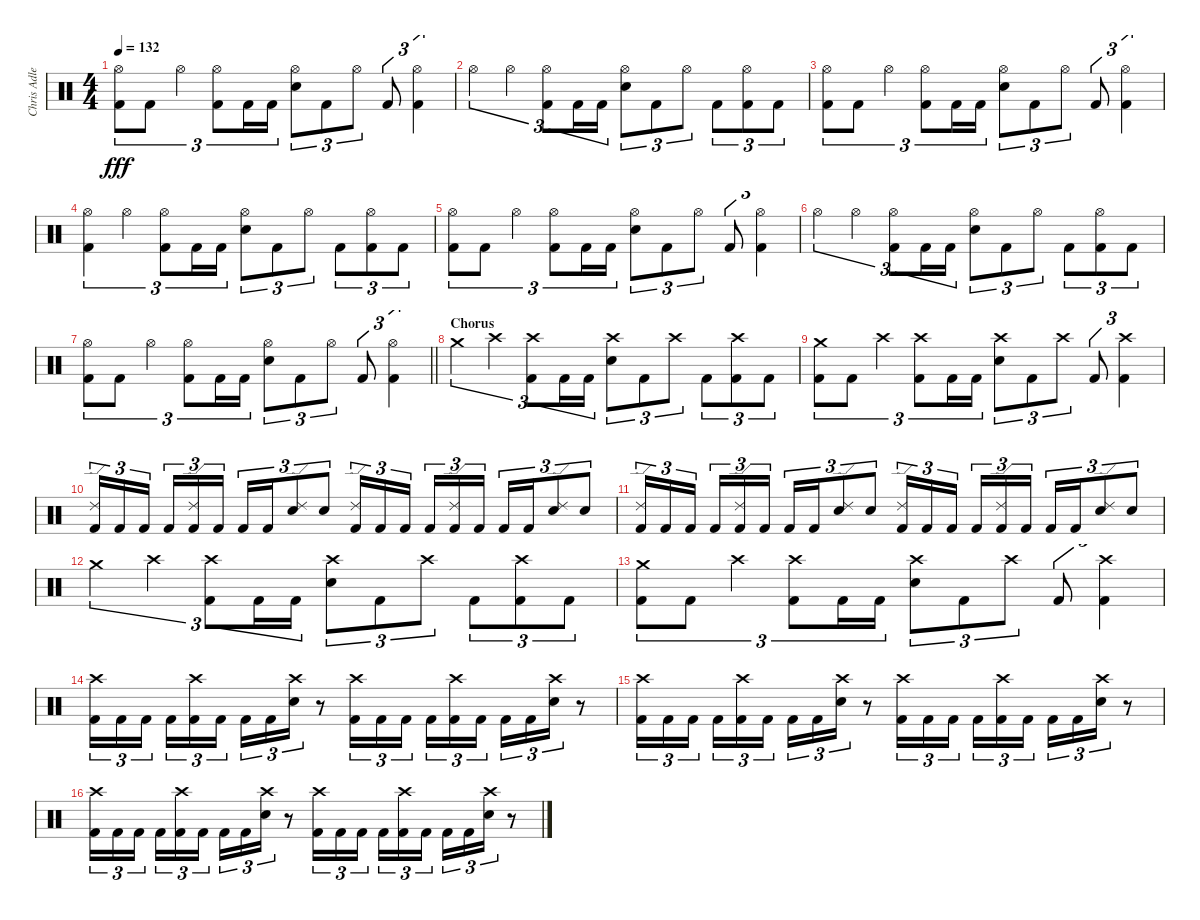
\track ("Chris Adler" "Chris Adle") {instrument percussion}
\staff {score}
\articulation defaults
\ts (4 4)
\tempo 132
\clef neutral
\ks c
("Hi-Hat (open)" "Kick (hit) 2").8{tu (3 2) dy fff} "Kick (hit) 2".8{tu (3 2)} "Hi-Hat (open)".4{tu (3 2)} ("Hi-Hat (open)" "Kick (hit) 2").8{tu (3 2)} "Kick (hit) 2".16{tu (3 2)} "Kick (hit) 2".16{tu (3 2)} ("Hi-Hat (open)" "Electric Snare (hit)").8{tu (3 2)} "Kick (hit) 2".8{tu (3 2)} "Hi-Hat (open)".8{tu (3 2)} "Kick (hit) 2".8{tu (3 2)} ("Hi-Hat (open)" "Kick (hit) 2").4{tu (3 2)} |
"Hi-Hat (open)".4{tu (3 2)} "Hi-Hat (open)".4{tu (3 2)} ("Hi-Hat (open)" "Kick (hit) 2").8{tu (3 2)} "Kick (hit) 2".16{tu (3 2)} "Kick (hit) 2".16{tu (3 2)} ("Hi-Hat (open)" "Electric Snare (hit)").8{tu (3 2)} "Kick (hit) 2".8{tu (3 2)} "Hi-Hat (open)".8{tu (3 2)} "Kick (hit) 2".8{tu (3 2)} ("Hi-Hat (open)" "Kick (hit) 2").8{tu (3 2)} "Kick (hit) 2".8{tu (3 2)} |
("Hi-Hat (open)" "Kick (hit) 2").8{tu (3 2)} "Kick (hit) 2".8{tu (3 2)} "Hi-Hat (open)".4{tu (3 2)} ("Hi-Hat (open)" "Kick (hit) 2").8{tu (3 2)} "Kick (hit) 2".16{tu (3 2)} "Kick (hit) 2".16{tu (3 2)} ("Hi-Hat (open)" "Electric Snare (hit)").8{tu (3 2)} "Kick (hit) 2".8{tu (3 2)} "Hi-Hat (open)".8{tu (3 2)} "Kick (hit) 2".8{tu (3 2)} ("Hi-Hat (open)" "Kick (hit) 2").4{tu (3 2)} |
("Hi-Hat (open)" "Kick (hit) 2").4{tu (3 2)} "Hi-Hat (open)".4{tu (3 2)} ("Hi-Hat (open)" "Kick (hit) 2").8{tu (3 2)} "Kick (hit) 2".16{tu (3 2)} "Kick (hit) 2".16{tu (3 2)} ("Hi-Hat (open)" "Electric Snare (hit)").8{tu (3 2)} "Kick (hit) 2".8{tu (3 2)} "Hi-Hat (open)".8{tu (3 2)} "Kick (hit) 2".8{tu (3 2)} ("Hi-Hat (open)" "Kick (hit) 2").8{tu (3 2)} "Kick (hit) 2".8{tu (3 2)} |
("Hi-Hat (open)" "Kick (hit) 2").8{tu (3 2)} "Kick (hit) 2".8{tu (3 2)} "Hi-Hat (open)".4{tu (3 2)} ("Hi-Hat (open)" "Kick (hit) 2").8{tu (3 2)} "Kick (hit) 2".16{tu (3 2)} "Kick (hit) 2".16{tu (3 2)} ("Hi-Hat (open)" "Electric Snare (hit)").8{tu (3 2)} "Kick (hit) 2".8{tu (3 2)} "Hi-Hat (open)".8{tu (3 2)} "Kick (hit) 2".8{tu (3 2)} ("Hi-Hat (open)" "Kick (hit) 2").4{tu (3 2)} |
"Hi-Hat (open)".4{tu (3 2)} "Hi-Hat (open)".4{tu (3 2)} ("Hi-Hat (open)" "Kick (hit) 2").8{tu (3 2)} "Kick (hit) 2".16{tu (3 2)} "Kick (hit) 2".16{tu (3 2)} ("Hi-Hat (open)" "Electric Snare (hit)").8{tu (3 2)} "Kick (hit) 2".8{tu (3 2)} "Hi-Hat (open)".8{tu (3 2)} "Kick (hit) 2".8{tu (3 2)} ("Hi-Hat (open)" "Kick (hit) 2").8{tu (3 2)} "Kick (hit) 2".8{tu (3 2)} |
\barLineRight lightlight
("Hi-Hat (open)" "Kick (hit) 2").8{tu (3 2)} "Kick (hit) 2".8{tu (3 2)} "Hi-Hat (open)".4{tu (3 2)} ("Hi-Hat (open)" "Kick (hit) 2").8{tu (3 2)} "Kick (hit) 2".16{tu (3 2)} "Kick (hit) 2".16{tu (3 2)} ("Hi-Hat (open)" "Electric Snare (hit)").8{tu (3 2)} "Kick (hit) 2".8{tu (3 2)} "Hi-Hat (open)".8{tu (3 2)} "Kick (hit) 2".8{tu (3 2)} ("Hi-Hat (open)" "Kick (hit) 2").4{tu (3 2)} |
\section ("" "Chorus")
"Crash medium (hit)".4{tu (3 2)} "Crash high (hit)".4{tu (3 2)} ("Crash high (hit)" "Kick (hit) 2").8{tu (3 2)} "Kick (hit) 2".16{tu (3 2)} "Kick (hit) 2".16{tu (3 2)} ("Crash high (hit)" "Electric Snare (hit)").8{tu (3 2)} "Kick (hit) 2".8{tu (3 2)} "Crash high (hit)".8{tu (3 2)} "Kick (hit) 2".8{tu (3 2)} ("Crash high (hit)" "Kick (hit) 2").8{tu (3 2)} "Kick (hit) 2".8{tu (3 2)} |
("Crash medium (hit)" "Kick (hit) 2").8{tu (3 2)} "Kick (hit) 2".8{tu (3 2)} "Crash high (hit)".4{tu (3 2)} ("Crash high (hit)" "Kick (hit) 2").8{tu (3 2)} "Kick (hit) 2".16{tu (3 2)} "Kick (hit) 2".16{tu (3 2)} ("Crash high (hit)" "Electric Snare (hit)").8{tu (3 2)} "Kick (hit) 2".8{tu (3 2)} "Crash high (hit)".8{tu (3 2)} "Kick (hit) 2".8{tu (3 2)} ("Crash high (hit)" "Kick (hit) 2").4{tu (3 2)} |
("Ride (edge) 2" "Kick (hit) 2").16{tu (3 2)} "Kick (hit) 2".16{tu (3 2)} "Kick (hit) 2".16{tu (3 2) beam splitsecondary} "Kick (hit) 2".16{tu (3 2)} ("Ride (edge) 2" "Kick (hit) 2").16{tu (3 2)} "Kick (hit) 2".16{tu (3 2)} "Kick (hit) 2".16{tu (3 2)} "Kick (hit) 2".16{tu (3 2)} ("Ride (edge) 2" "Electric Snare (hit)").8{tu (3 2)} "Electric Snare (hit)".8{tu (3 2)} ("Ride (edge) 2" "Kick (hit) 2").16{tu (3 2)} "Kick (hit) 2".16{tu (3 2)} "Kick (hit) 2".16{tu (3 2) beam splitsecondary} "Kick (hit) 2".16{tu (3 2)} ("Ride (edge) 2" "Kick (hit) 2").16{tu (3 2)} "Kick (hit) 2".16{tu (3 2)} "Kick (hit) 2".16{tu (3 2)} "Kick (hit) 2".16{tu (3 2)} ("Ride (edge) 2" "Electric Snare (hit)").8{tu (3 2)} "Electric Snare (hit)".8{tu (3 2)} |
("Ride (edge) 2" "Kick (hit) 2").16{tu (3 2)} "Kick (hit) 2".16{tu (3 2)} "Kick (hit) 2".16{tu (3 2) beam splitsecondary} "Kick (hit) 2".16{tu (3 2)} ("Ride (edge) 2" "Kick (hit) 2").16{tu (3 2)} "Kick (hit) 2".16{tu (3 2)} "Kick (hit) 2".16{tu (3 2)} "Kick (hit) 2".16{tu (3 2)} ("Ride (edge) 2" "Electric Snare (hit)").8{tu (3 2)} "Electric Snare (hit)".8{tu (3 2)} ("Ride (edge) 2" "Kick (hit) 2").16{tu (3 2)} "Kick (hit) 2".16{tu (3 2)} "Kick (hit) 2".16{tu (3 2) beam splitsecondary} "Kick (hit) 2".16{tu (3 2)} ("Ride (edge) 2" "Kick (hit) 2").16{tu (3 2)} "Kick (hit) 2".16{tu (3 2)} "Kick (hit) 2".16{tu (3 2)} "Kick (hit) 2".16{tu (3 2)} ("Ride (edge) 2" "Electric Snare (hit)").8{tu (3 2)} "Electric Snare (hit)".8{tu (3 2)} |
"Crash medium (hit)".4{tu (3 2)} "Crash high (hit)".4{tu (3 2)} ("Crash high (hit)" "Kick (hit) 2").8{tu (3 2)} "Kick (hit) 2".16{tu (3 2)} "Kick (hit) 2".16{tu (3 2)} ("Crash high (hit)" "Electric Snare (hit)").8{tu (3 2)} "Kick (hit) 2".8{tu (3 2)} "Crash high (hit)".8{tu (3 2)} "Kick (hit) 2".8{tu (3 2)} ("Crash high (hit)" "Kick (hit) 2").8{tu (3 2)} "Kick (hit) 2".8{tu (3 2)} |
("Crash medium (hit)" "Kick (hit) 2").8{tu (3 2)} "Kick (hit) 2".8{tu (3 2)} "Crash high (hit)".4{tu (3 2)} ("Crash high (hit)" "Kick (hit) 2").8{tu (3 2)} "Kick (hit) 2".16{tu (3 2)} "Kick (hit) 2".16{tu (3 2)} ("Crash high (hit)" "Electric Snare (hit)").8{tu (3 2)} "Kick (hit) 2".8{tu (3 2)} "Crash high (hit)".8{tu (3 2)} "Kick (hit) 2".8{tu (3 2)} ("Crash high (hit)" "Kick (hit) 2").4{tu (3 2)} |
("Crash high (hit)" "Kick (hit) 2").16{tu (3 2)} "Kick (hit) 2".16{tu (3 2)} "Kick (hit) 2".16{tu (3 2) beam splitsecondary} "Kick (hit) 2".16{tu (3 2)} ("Crash high (hit)" "Kick (hit) 2").16{tu (3 2)} "Kick (hit) 2".16{tu (3 2)} "Kick (hit) 2".16{tu (3 2)} "Kick (hit) 2".16{tu (3 2)} ("Crash high (hit)" "Electric Snare (hit)").16{tu (3 2)} r.8 ("Crash high (hit)" "Kick (hit) 2").16{tu (3 2)} "Kick (hit) 2".16{tu (3 2)} "Kick (hit) 2".16{tu (3 2) beam splitsecondary} "Kick (hit) 2".16{tu (3 2)} ("Crash high (hit)" "Kick (hit) 2").16{tu (3 2)} "Kick (hit) 2".16{tu (3 2)} "Kick (hit) 2".16{tu (3 2)} "Kick (hit) 2".16{tu (3 2)} ("Crash high (hit)" "Electric Snare (hit)").16{tu (3 2)} r.8 |
("Crash high (hit)" "Kick (hit) 2").16{tu (3 2)} "Kick (hit) 2".16{tu (3 2)} "Kick (hit) 2".16{tu (3 2) beam splitsecondary} "Kick (hit) 2".16{tu (3 2)} ("Crash high (hit)" "Kick (hit) 2").16{tu (3 2)} "Kick (hit) 2".16{tu (3 2)} "Kick (hit) 2".16{tu (3 2)} "Kick (hit) 2".16{tu (3 2)} ("Crash high (hit)" "Electric Snare (hit)").16{tu (3 2)} r.8 ("Crash high (hit)" "Kick (hit) 2").16{tu (3 2)} "Kick (hit) 2".16{tu (3 2)} "Kick (hit) 2".16{tu (3 2) beam splitsecondary} "Kick (hit) 2".16{tu (3 2)} ("Crash high (hit)" "Kick (hit) 2").16{tu (3 2)} "Kick (hit) 2".16{tu (3 2)} "Kick (hit) 2".16{tu (3 2)} "Kick (hit) 2".16{tu (3 2)} ("Crash high (hit)" "Electric Snare (hit)").16{tu (3 2)} r.8 |
("Crash high (hit)" "Kick (hit) 2").16{tu (3 2)} "Kick (hit) 2".16{tu (3 2)} "Kick (hit) 2".16{tu (3 2) beam splitsecondary} "Kick (hit) 2".16{tu (3 2)} ("Crash high (hit)" "Kick (hit) 2").16{tu (3 2)} "Kick (hit) 2".16{tu (3 2)} "Kick (hit) 2".16{tu (3 2)} "Kick (hit) 2".16{tu (3 2)} ("Crash high (hit)" "Electric Snare (hit)").16{tu (3 2)} r.8 ("Crash high (hit)" "Kick (hit) 2").16{tu (3 2)} "Kick (hit) 2".16{tu (3 2)} "Kick (hit) 2".16{tu (3 2) beam splitsecondary} "Kick (hit) 2".16{tu (3 2)} ("Crash high (hit)" "Kick (hit) 2").16{tu (3 2)} "Kick (hit) 2".16{tu (3 2)} "Kick (hit) 2".16{tu (3 2)} "Kick (hit) 2".16{tu (3 2)} ("Crash high (hit)" "Electric Snare (hit)").16{tu (3 2)} r.8
